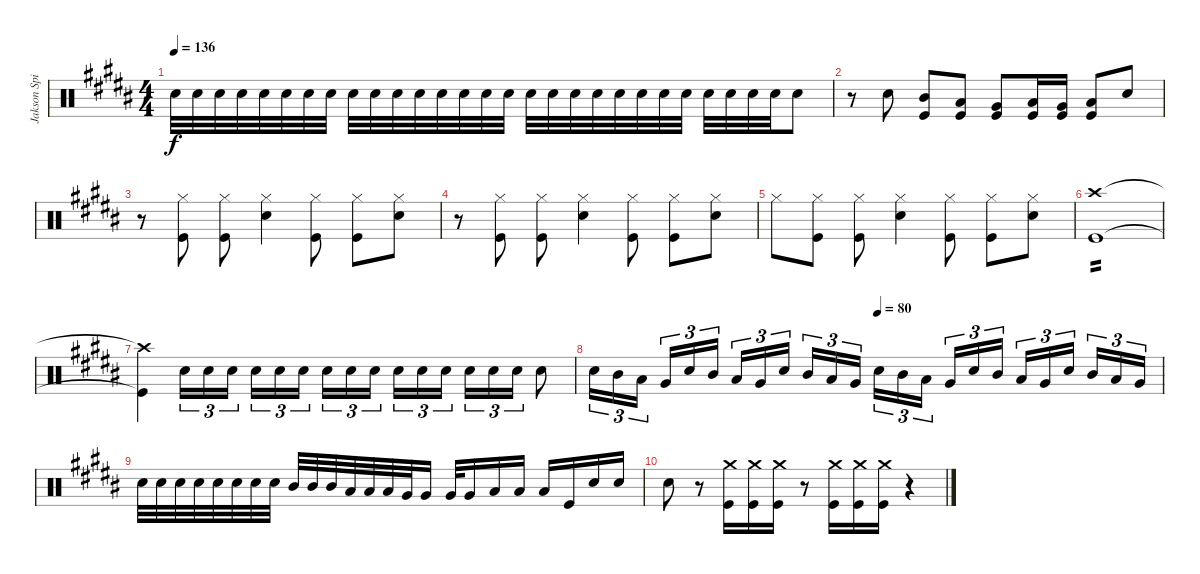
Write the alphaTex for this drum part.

\track ("Jakson Spires Drums" "Jakson Spi") {instrument percussion}
\staff {score}
\articulation defaults
\ts (4 4)
\tempo 136
\clef neutral
\ks b "Snare (hit) 2".32{dy f} "Snare (hit) 2".32 "Snare (hit) 2".32 "Snare (hit) 2".32 "Snare (hit) 2".32 "Snare (hit) 2".32 "Snare (hit) 2".32 "Snare (hit) 2".32 "Snare (hit) 2".32 "Snare (hit) 2".32 "Snare (hit) 2".32 "Snare (hit) 2".32 "Snare (hit) 2".32 "Snare (hit) 2".32 "Snare (hit) 2".32 "Snare (hit) 2".32 "Snare (hit) 2".32 "Snare (hit) 2".32 "Snare (hit) 2".32 "Snare (hit) 2".32 "Snare (hit) 2".32 "Snare (hit) 2".32 "Snare (hit) 2".32 "Snare (hit) 2".32 "Snare (hit) 2".32 "Snare (hit) 2".32 "Snare (hit) 2".32 "Snare (hit) 2".32 "Snare (hit) 2".8
|
r.8 "Snare (hit) 2".8 ("Mid Tom (hit)" "Kick (hit)").8 ("Low Tom (hit)" "Kick (hit)").8 ("Very Low Tom (hit)" "Kick (hit)").8 ("Low Tom (hit)" "Kick (hit)").16 ("Very Low Tom (hit)" "Kick (hit)").16 ("Low Floor Tom (hit)" "Kick (hit)").8 "Snare (hit) 2".8 |
r.8 ("Hi-Hat (closed)" "Kick (hit)").8 ("Hi-Hat (closed)" "Kick (hit)").8 ("Hi-Hat (closed)" "Snare (hit) 2").4 ("Hi-Hat (closed)" "Kick (hit)").8 ("Hi-Hat (closed)" "Kick (hit)").8 ("Hi-Hat (closed)" "Snare (hit) 2").8 |
r.8 ("Hi-Hat (closed)" "Kick (hit)").8 ("Hi-Hat (closed)" "Kick (hit)").8 ("Hi-Hat (closed)" "Snare (hit) 2").4 ("Hi-Hat (closed)" "Kick (hit)").8 ("Hi-Hat (closed)" "Kick (hit)").8 ("Hi-Hat (closed)" "Snare (hit) 2").8 |
"Hi-Hat (closed)".8 ("Hi-Hat (closed)" "Kick (hit)").8 ("Hi-Hat (closed)" "Kick (hit)").8 ("Hi-Hat (closed)" "Snare (hit) 2").4 ("Hi-Hat (closed)" "Kick (hit)").8 ("Hi-Hat (closed)" "Kick (hit)").8 ("Hi-Hat (closed)" "Snare (hit) 2").8 |
("Crash high (hit)" "Kick (hit)").1{tp 2} |
("Crash high (hit)"{t} "Kick (hit)"{t}).4 "Snare (hit) 2".16{tu (3 2)} "Snare (hit) 2".16{tu (3 2)} "Snare (hit) 2".16{tu (3 2) beam splitsecondary} "Snare (hit) 2".16{tu (3 2)} "Snare (hit) 2".16{tu (3 2)} "Snare (hit) 2".16{tu (3 2)} "Snare (hit) 2".16{tu (3 2)} "Snare (hit) 2".16{tu (3 2)} "Snare (hit) 2".16{tu (3 2) beam splitsecondary} "Snare (hit) 2".16{tu (3 2)} "Snare (hit) 2".16{tu (3 2)} "Snare (hit) 2".16{tu (3 2)} "Snare (hit) 2".16{tu (3 2)} "Snare (hit) 2".16{tu (3 2)} "Snare (hit) 2".16{tu (3 2)} "Snare (hit) 2".8 |
\tempo (80 0.5)
"Snare (hit) 2".16{tu (3 2)} "Mid Tom (hit)".16{tu (3 2)} "Low Tom (hit)".16{tu (3 2) beam splitsecondary} "Very Low Tom (hit)".16{tu (3 2)} "Snare (hit) 2".16{tu (3 2)} "Mid Tom (hit)".16{tu (3 2)} "Low Tom (hit)".16{tu (3 2)} "Very Low Tom (hit)".16{tu (3 2)} "Snare (hit) 2".16{tu (3 2) beam splitsecondary} "Mid Tom (hit)".16{tu (3 2)} "Low Tom (hit)".16{tu (3 2)} "Very Low Tom (hit)".16{tu (3 2)} "Snare (hit) 2".16{tu (3 2)} "Mid Tom (hit)".16{tu (3 2)} "Low Tom (hit)".16{tu (3 2) beam splitsecondary} "Very Low Tom (hit)".16{tu (3 2)} "Snare (hit) 2".16{tu (3 2)} "Mid Tom (hit)".16{tu (3 2)} "Low Tom (hit)".16{tu (3 2)} "Very Low Tom (hit)".16{tu (3 2)} "Snare (hit) 2".16{tu (3 2) beam splitsecondary} "Mid Tom (hit)".16{tu (3 2)} "Low Tom (hit)".16{tu (3 2)} "Very Low Tom (hit)".16{tu (3 2)} |
"Snare (hit) 2".32 "Snare (hit) 2".32 "Snare (hit) 2".32 "Snare (hit) 2".32 "Snare (hit) 2".32 "Snare (hit) 2".32 "Snare (hit) 2".32 "Snare (hit) 2".32 "Mid Tom (hit)".32 "Mid Tom (hit)".32 "Mid Tom (hit)".32 "Low Tom (hit)".32 "Low Tom (hit)".32 "Low Tom (hit)".32 "Very Low Tom (hit)".32 "Very Low Tom (hit)".16 "Very Low Tom (hit)".32 "Very Low Tom (hit)".16 "Low Floor Tom (hit)".16 "Low Floor Tom (hit)".16 "Low Floor Tom (hit)".16 "Kick (hit)".16 "Snare (hit) 2".16 "Snare (hit) 2".16 |
"Snare (hit) 2".8 r.8 ("Crash medium (hit)" "Kick (hit)").16 ("Crash medium (hit)" "Kick (hit)").16 ("Crash medium (hit)" "Kick (hit)").16 r.8 ("Crash medium (hit)" "Kick (hit)").16 ("Crash medium (hit)" "Kick (hit)").16 ("Crash medium (hit)" "Kick (hit)").16 r.4
